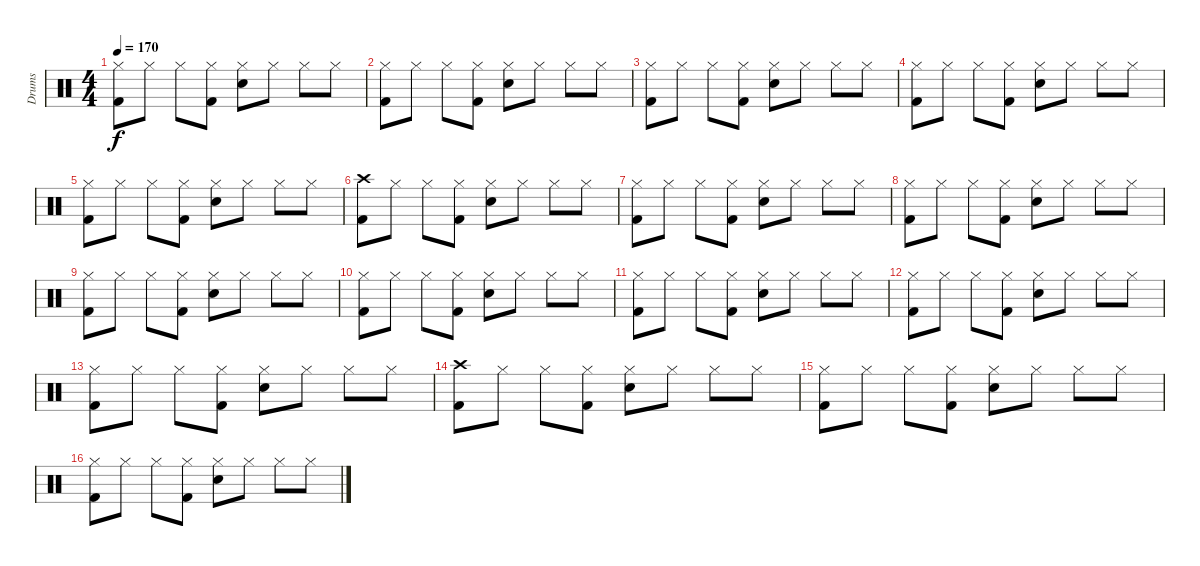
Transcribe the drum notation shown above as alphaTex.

\track ("Drums" "Drums") {instrument percussion}
\staff {score}
\articulation defaults
\ts (4 4)
\tempo 170
\clef neutral
\ks c
("Hi-Hat (closed)" "Kick (hit) 2").8{dy f} "Hi-Hat (closed)".8 "Hi-Hat (closed)".8 ("Hi-Hat (closed)" "Kick (hit) 2").8 ("Hi-Hat (closed)" "Snare (hit) 2").8 "Hi-Hat (closed)".8 "Hi-Hat (closed)".8 "Hi-Hat (closed)".8 |
("Hi-Hat (closed)" "Kick (hit) 2").8 "Hi-Hat (closed)".8 "Hi-Hat (closed)".8 ("Hi-Hat (closed)" "Kick (hit) 2").8 ("Hi-Hat (closed)" "Snare (hit) 2").8 "Hi-Hat (closed)".8 "Hi-Hat (closed)".8 "Hi-Hat (closed)".8 |
("Hi-Hat (closed)" "Kick (hit) 2").8 "Hi-Hat (closed)".8 "Hi-Hat (closed)".8 ("Hi-Hat (closed)" "Kick (hit) 2").8 ("Hi-Hat (closed)" "Snare (hit) 2").8 "Hi-Hat (closed)".8 "Hi-Hat (closed)".8 "Hi-Hat (closed)".8 |
("Hi-Hat (closed)" "Kick (hit) 2").8 "Hi-Hat (closed)".8 "Hi-Hat (closed)".8 ("Hi-Hat (closed)" "Kick (hit) 2").8 ("Hi-Hat (closed)" "Snare (hit) 2").8 "Hi-Hat (closed)".8 "Hi-Hat (closed)".8 "Hi-Hat (closed)".8 |
("Hi-Hat (closed)" "Kick (hit) 2").8 "Hi-Hat (closed)".8 "Hi-Hat (closed)".8 ("Hi-Hat (closed)" "Kick (hit) 2").8 ("Hi-Hat (closed)" "Snare (hit) 2").8 "Hi-Hat (closed)".8 "Hi-Hat (closed)".8 "Hi-Hat (closed)".8 |
("Crash high (hit)" "Kick (hit) 2").8 "Hi-Hat (closed)".8 "Hi-Hat (closed)".8 ("Hi-Hat (closed)" "Kick (hit) 2").8 ("Hi-Hat (closed)" "Snare (hit) 2").8 "Hi-Hat (closed)".8 "Hi-Hat (closed)".8 "Hi-Hat (closed)".8 |
("Hi-Hat (closed)" "Kick (hit) 2").8 "Hi-Hat (closed)".8 "Hi-Hat (closed)".8 ("Hi-Hat (closed)" "Kick (hit) 2").8 ("Hi-Hat (closed)" "Snare (hit) 2").8 "Hi-Hat (closed)".8 "Hi-Hat (closed)".8 "Hi-Hat (closed)".8 |
("Hi-Hat (closed)" "Kick (hit) 2").8 "Hi-Hat (closed)".8 "Hi-Hat (closed)".8 ("Hi-Hat (closed)" "Kick (hit) 2").8 ("Hi-Hat (closed)" "Snare (hit) 2").8 "Hi-Hat (closed)".8 "Hi-Hat (closed)".8 "Hi-Hat (closed)".8 |
("Hi-Hat (closed)" "Kick (hit) 2").8 "Hi-Hat (closed)".8 "Hi-Hat (closed)".8 ("Hi-Hat (closed)" "Kick (hit) 2").8 ("Hi-Hat (closed)" "Snare (hit) 2").8 "Hi-Hat (closed)".8 "Hi-Hat (closed)".8 "Hi-Hat (closed)".8 |
("Hi-Hat (closed)" "Kick (hit) 2").8 "Hi-Hat (closed)".8 "Hi-Hat (closed)".8 ("Hi-Hat (closed)" "Kick (hit) 2").8 ("Hi-Hat (closed)" "Snare (hit) 2").8 "Hi-Hat (closed)".8 "Hi-Hat (closed)".8 "Hi-Hat (closed)".8 |
("Hi-Hat (closed)" "Kick (hit) 2").8 "Hi-Hat (closed)".8 "Hi-Hat (closed)".8 ("Hi-Hat (closed)" "Kick (hit) 2").8 ("Hi-Hat (closed)" "Snare (hit) 2").8 "Hi-Hat (closed)".8 "Hi-Hat (closed)".8 "Hi-Hat (closed)".8 |
("Hi-Hat (closed)" "Kick (hit) 2").8 "Hi-Hat (closed)".8 "Hi-Hat (closed)".8 ("Hi-Hat (closed)" "Kick (hit) 2").8 ("Hi-Hat (closed)" "Snare (hit) 2").8 "Hi-Hat (closed)".8 "Hi-Hat (closed)".8 "Hi-Hat (closed)".8 |
("Hi-Hat (closed)" "Kick (hit) 2").8 "Hi-Hat (closed)".8 "Hi-Hat (closed)".8 ("Hi-Hat (closed)" "Kick (hit) 2").8 ("Hi-Hat (closed)" "Snare (hit) 2").8 "Hi-Hat (closed)".8 "Hi-Hat (closed)".8 "Hi-Hat (closed)".8 |
("Crash high (hit)" "Kick (hit) 2").8 "Hi-Hat (closed)".8 "Hi-Hat (closed)".8 ("Hi-Hat (closed)" "Kick (hit) 2").8 ("Hi-Hat (closed)" "Snare (hit) 2").8 "Hi-Hat (closed)".8 "Hi-Hat (closed)".8 "Hi-Hat (closed)".8 |
("Hi-Hat (closed)" "Kick (hit) 2").8 "Hi-Hat (closed)".8 "Hi-Hat (closed)".8 ("Hi-Hat (closed)" "Kick (hit) 2").8 ("Hi-Hat (closed)" "Snare (hit) 2").8 "Hi-Hat (closed)".8 "Hi-Hat (closed)".8 "Hi-Hat (closed)".8 |
("Hi-Hat (closed)" "Kick (hit) 2").8 "Hi-Hat (closed)".8 "Hi-Hat (closed)".8 ("Hi-Hat (closed)" "Kick (hit) 2").8 ("Hi-Hat (closed)" "Snare (hit) 2").8 "Hi-Hat (closed)".8 "Hi-Hat (closed)".8 "Hi-Hat (closed)".8
